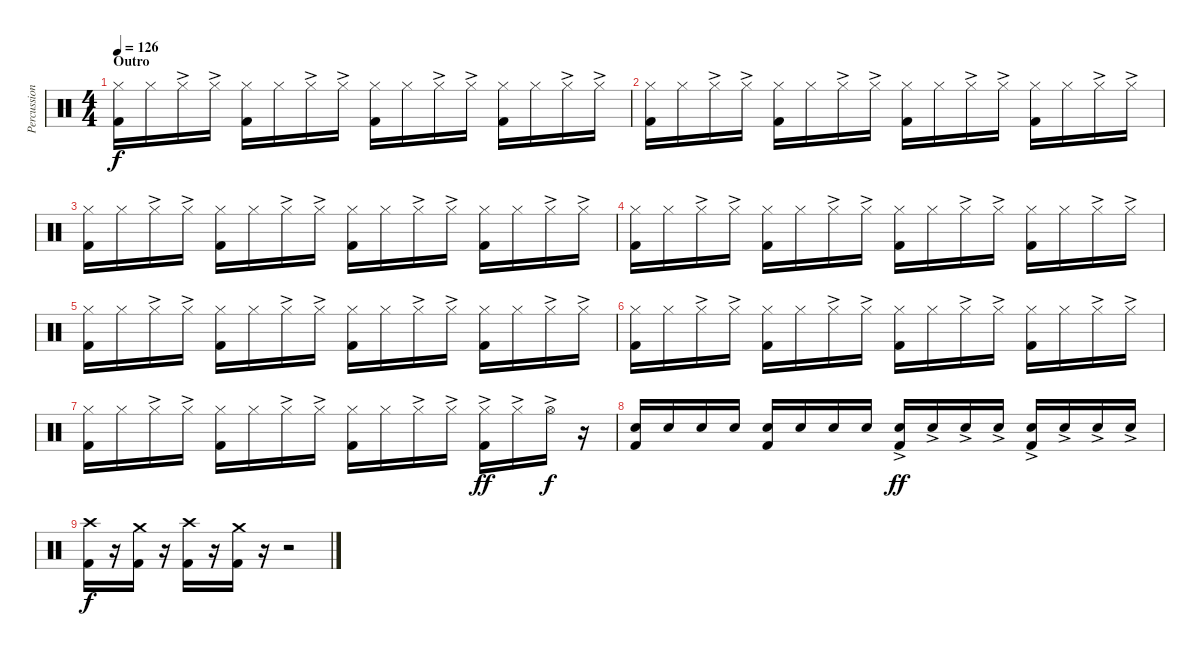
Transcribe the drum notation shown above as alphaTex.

\track ("Percussion" "Percussion") {instrument percussion}
\staff {score}
\articulation defaults
\ts (4 4)
\section ("" "Outro")
\tempo 126
\clef neutral
\ks c
("Hi-Hat (closed)" "Kick (hit) 2").16{dy f} "Hi-Hat (closed)".16 "Hi-Hat (closed)"{ac}.16 "Hi-Hat (closed)"{ac}.16 ("Hi-Hat (closed)" "Kick (hit) 2").16 "Hi-Hat (closed)".16 "Hi-Hat (closed)"{ac}.16 "Hi-Hat (closed)"{ac}.16 ("Hi-Hat (closed)" "Kick (hit) 2").16 "Hi-Hat (closed)".16 "Hi-Hat (closed)"{ac}.16 "Hi-Hat (closed)"{ac}.16 ("Hi-Hat (closed)" "Kick (hit) 2").16 "Hi-Hat (closed)".16 "Hi-Hat (closed)"{ac}.16 "Hi-Hat (closed)"{ac}.16 |
("Hi-Hat (closed)" "Kick (hit) 2").16 "Hi-Hat (closed)".16 "Hi-Hat (closed)"{ac}.16 "Hi-Hat (closed)"{ac}.16 ("Hi-Hat (closed)" "Kick (hit) 2").16 "Hi-Hat (closed)".16 "Hi-Hat (closed)"{ac}.16 "Hi-Hat (closed)"{ac}.16 ("Hi-Hat (closed)" "Kick (hit) 2").16 "Hi-Hat (closed)".16 "Hi-Hat (closed)"{ac}.16 "Hi-Hat (closed)"{ac}.16 ("Hi-Hat (closed)" "Kick (hit) 2").16 "Hi-Hat (closed)".16 "Hi-Hat (closed)"{ac}.16 "Hi-Hat (closed)"{ac}.16 |
("Hi-Hat (closed)" "Kick (hit) 2").16 "Hi-Hat (closed)".16 "Hi-Hat (closed)"{ac}.16 "Hi-Hat (closed)"{ac}.16 ("Hi-Hat (closed)" "Kick (hit) 2").16 "Hi-Hat (closed)".16 "Hi-Hat (closed)"{ac}.16 "Hi-Hat (closed)"{ac}.16 ("Hi-Hat (closed)" "Kick (hit) 2").16 "Hi-Hat (closed)".16 "Hi-Hat (closed)"{ac}.16 "Hi-Hat (closed)"{ac}.16 ("Hi-Hat (closed)" "Kick (hit) 2").16 "Hi-Hat (closed)".16 "Hi-Hat (closed)"{ac}.16 "Hi-Hat (closed)"{ac}.16 |
("Hi-Hat (closed)" "Kick (hit) 2").16 "Hi-Hat (closed)".16 "Hi-Hat (closed)"{ac}.16 "Hi-Hat (closed)"{ac}.16 ("Hi-Hat (closed)" "Kick (hit) 2").16 "Hi-Hat (closed)".16 "Hi-Hat (closed)"{ac}.16 "Hi-Hat (closed)"{ac}.16 ("Hi-Hat (closed)" "Kick (hit) 2").16 "Hi-Hat (closed)".16 "Hi-Hat (closed)"{ac}.16 "Hi-Hat (closed)"{ac}.16 ("Hi-Hat (closed)" "Kick (hit) 2").16 "Hi-Hat (closed)".16 "Hi-Hat (closed)"{ac}.16 "Hi-Hat (closed)"{ac}.16 |
("Hi-Hat (closed)" "Kick (hit) 2").16 "Hi-Hat (closed)".16 "Hi-Hat (closed)"{ac}.16 "Hi-Hat (closed)"{ac}.16 ("Hi-Hat (closed)" "Kick (hit) 2").16 "Hi-Hat (closed)".16 "Hi-Hat (closed)"{ac}.16 "Hi-Hat (closed)"{ac}.16 ("Hi-Hat (closed)" "Kick (hit) 2").16 "Hi-Hat (closed)".16 "Hi-Hat (closed)"{ac}.16 "Hi-Hat (closed)"{ac}.16 ("Hi-Hat (closed)" "Kick (hit) 2").16 "Hi-Hat (closed)".16 "Hi-Hat (closed)"{ac}.16 "Hi-Hat (closed)"{ac}.16 |
("Hi-Hat (closed)" "Kick (hit) 2").16 "Hi-Hat (closed)".16 "Hi-Hat (closed)"{ac}.16 "Hi-Hat (closed)"{ac}.16 ("Hi-Hat (closed)" "Kick (hit) 2").16 "Hi-Hat (closed)".16 "Hi-Hat (closed)"{ac}.16 "Hi-Hat (closed)"{ac}.16 ("Hi-Hat (closed)" "Kick (hit) 2").16 "Hi-Hat (closed)".16 "Hi-Hat (closed)"{ac}.16 "Hi-Hat (closed)"{ac}.16 ("Hi-Hat (closed)" "Kick (hit) 2").16 "Hi-Hat (closed)".16 "Hi-Hat (closed)"{ac}.16 "Hi-Hat (closed)"{ac}.16 |
("Hi-Hat (closed)" "Kick (hit) 2").16 "Hi-Hat (closed)".16 "Hi-Hat (closed)"{ac}.16 "Hi-Hat (closed)"{ac}.16 ("Hi-Hat (closed)" "Kick (hit) 2").16 "Hi-Hat (closed)".16 "Hi-Hat (closed)"{ac}.16 "Hi-Hat (closed)"{ac}.16 ("Hi-Hat (closed)" "Kick (hit) 2").16 "Hi-Hat (closed)".16 "Hi-Hat (closed)"{ac}.16 "Hi-Hat (closed)"{ac}.16 ("Hi-Hat (closed)"{ac} "Kick (hit) 2").16{dy ff} "Hi-Hat (closed)"{ac}.16 "Hi-Hat (open)"{ac}.16{dy f} r.16 |
("Electric Snare (hit)" "Kick (hit) 2").16 "Electric Snare (hit)".16 "Electric Snare (hit)".16 "Electric Snare (hit)".16 ("Electric Snare (hit)" "Kick (hit) 2").16 "Electric Snare (hit)".16 "Electric Snare (hit)".16 "Electric Snare (hit)".16 ("Electric Snare (hit)"{ac} "Kick (hit) 2").16{dy ff} "Electric Snare (hit)"{ac}.16 "Electric Snare (hit)"{ac}.16 "Electric Snare (hit)"{ac}.16 ("Electric Snare (hit)"{ac} "Kick (hit) 2").16 "Electric Snare (hit)"{ac}.16 "Electric Snare (hit)"{ac}.16 "Electric Snare (hit)"{ac}.16 |
("Crash high (hit)" "Kick (hit) 2").16{dy f} r.16 ("Crash medium (hit)" "Kick (hit) 2").16 r.16 ("Crash high (hit)" "Kick (hit) 2").16 r.16 ("Crash medium (hit)" "Kick (hit) 2").16 r.16 r.2
